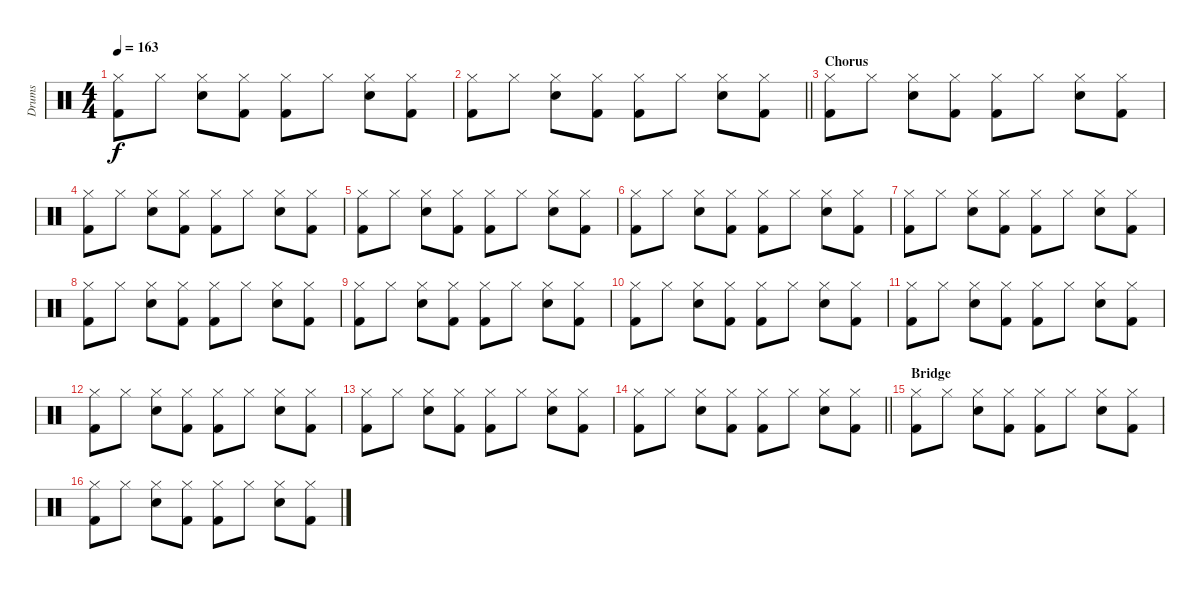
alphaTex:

\track ("Drums" "Drums") {instrument percussion}
\staff {score}
\articulation defaults
\ts (4 4)
\tempo 163
\clef neutral
\ks c
("Hi-Hat (closed)" "Kick (hit) 2").8{dy f} "Hi-Hat (closed)".8 ("Hi-Hat (closed)" "Snare (hit) 2").8 ("Hi-Hat (closed)" "Kick (hit) 2").8 ("Hi-Hat (closed)" "Kick (hit) 2").8 "Hi-Hat (closed)".8 ("Hi-Hat (closed)" "Snare (hit) 2").8 ("Hi-Hat (closed)" "Kick (hit) 2").8 |
\barLineRight lightlight
("Hi-Hat (closed)" "Kick (hit) 2").8 "Hi-Hat (closed)".8 ("Hi-Hat (closed)" "Snare (hit) 2").8 ("Hi-Hat (closed)" "Kick (hit) 2").8 ("Hi-Hat (closed)" "Kick (hit) 2").8 "Hi-Hat (closed)".8 ("Hi-Hat (closed)" "Snare (hit) 2").8 ("Hi-Hat (closed)" "Kick (hit) 2").8 |
\section ("" "Chorus")
("Hi-Hat (closed)" "Kick (hit) 2").8 "Hi-Hat (closed)".8 ("Hi-Hat (closed)" "Snare (hit) 2").8 ("Hi-Hat (closed)" "Kick (hit) 2").8 ("Hi-Hat (closed)" "Kick (hit) 2").8 "Hi-Hat (closed)".8 ("Hi-Hat (closed)" "Snare (hit) 2").8 ("Hi-Hat (closed)" "Kick (hit) 2").8 |
("Hi-Hat (closed)" "Kick (hit) 2").8 "Hi-Hat (closed)".8 ("Hi-Hat (closed)" "Snare (hit) 2").8 ("Hi-Hat (closed)" "Kick (hit) 2").8 ("Hi-Hat (closed)" "Kick (hit) 2").8 "Hi-Hat (closed)".8 ("Hi-Hat (closed)" "Snare (hit) 2").8 ("Hi-Hat (closed)" "Kick (hit) 2").8 |
("Hi-Hat (closed)" "Kick (hit) 2").8 "Hi-Hat (closed)".8 ("Hi-Hat (closed)" "Snare (hit) 2").8 ("Hi-Hat (closed)" "Kick (hit) 2").8 ("Hi-Hat (closed)" "Kick (hit) 2").8 "Hi-Hat (closed)".8 ("Hi-Hat (closed)" "Snare (hit) 2").8 ("Hi-Hat (closed)" "Kick (hit) 2").8 |
("Hi-Hat (closed)" "Kick (hit) 2").8 "Hi-Hat (closed)".8 ("Hi-Hat (closed)" "Snare (hit) 2").8 ("Hi-Hat (closed)" "Kick (hit) 2").8 ("Hi-Hat (closed)" "Kick (hit) 2").8 "Hi-Hat (closed)".8 ("Hi-Hat (closed)" "Snare (hit) 2").8 ("Hi-Hat (closed)" "Kick (hit) 2").8 |
("Hi-Hat (closed)" "Kick (hit) 2").8 "Hi-Hat (closed)".8 ("Hi-Hat (closed)" "Snare (hit) 2").8 ("Hi-Hat (closed)" "Kick (hit) 2").8 ("Hi-Hat (closed)" "Kick (hit) 2").8 "Hi-Hat (closed)".8 ("Hi-Hat (closed)" "Snare (hit) 2").8 ("Hi-Hat (closed)" "Kick (hit) 2").8 |
("Hi-Hat (closed)" "Kick (hit) 2").8 "Hi-Hat (closed)".8 ("Hi-Hat (closed)" "Snare (hit) 2").8 ("Hi-Hat (closed)" "Kick (hit) 2").8 ("Hi-Hat (closed)" "Kick (hit) 2").8 "Hi-Hat (closed)".8 ("Hi-Hat (closed)" "Snare (hit) 2").8 ("Hi-Hat (closed)" "Kick (hit) 2").8 |
("Hi-Hat (closed)" "Kick (hit) 2").8 "Hi-Hat (closed)".8 ("Hi-Hat (closed)" "Snare (hit) 2").8 ("Hi-Hat (closed)" "Kick (hit) 2").8 ("Hi-Hat (closed)" "Kick (hit) 2").8 "Hi-Hat (closed)".8 ("Hi-Hat (closed)" "Snare (hit) 2").8 ("Hi-Hat (closed)" "Kick (hit) 2").8 |
("Hi-Hat (closed)" "Kick (hit) 2").8 "Hi-Hat (closed)".8 ("Hi-Hat (closed)" "Snare (hit) 2").8 ("Hi-Hat (closed)" "Kick (hit) 2").8 ("Hi-Hat (closed)" "Kick (hit) 2").8 "Hi-Hat (closed)".8 ("Hi-Hat (closed)" "Snare (hit) 2").8 ("Hi-Hat (closed)" "Kick (hit) 2").8 |
("Hi-Hat (closed)" "Kick (hit) 2").8 "Hi-Hat (closed)".8 ("Hi-Hat (closed)" "Snare (hit) 2").8 ("Hi-Hat (closed)" "Kick (hit) 2").8 ("Hi-Hat (closed)" "Kick (hit) 2").8 "Hi-Hat (closed)".8 ("Hi-Hat (closed)" "Snare (hit) 2").8 ("Hi-Hat (closed)" "Kick (hit) 2").8 |
("Hi-Hat (closed)" "Kick (hit) 2").8 "Hi-Hat (closed)".8 ("Hi-Hat (closed)" "Snare (hit) 2").8 ("Hi-Hat (closed)" "Kick (hit) 2").8 ("Hi-Hat (closed)" "Kick (hit) 2").8 "Hi-Hat (closed)".8 ("Hi-Hat (closed)" "Snare (hit) 2").8 ("Hi-Hat (closed)" "Kick (hit) 2").8 |
("Hi-Hat (closed)" "Kick (hit) 2").8 "Hi-Hat (closed)".8 ("Hi-Hat (closed)" "Snare (hit) 2").8 ("Hi-Hat (closed)" "Kick (hit) 2").8 ("Hi-Hat (closed)" "Kick (hit) 2").8 "Hi-Hat (closed)".8 ("Hi-Hat (closed)" "Snare (hit) 2").8 ("Hi-Hat (closed)" "Kick (hit) 2").8 |
\barLineRight lightlight
("Hi-Hat (closed)" "Kick (hit) 2").8 "Hi-Hat (closed)".8 ("Hi-Hat (closed)" "Snare (hit) 2").8 ("Hi-Hat (closed)" "Kick (hit) 2").8 ("Hi-Hat (closed)" "Kick (hit) 2").8 "Hi-Hat (closed)".8 ("Hi-Hat (closed)" "Snare (hit) 2").8 ("Hi-Hat (closed)" "Kick (hit) 2").8 |
\section ("" "Bridge")
("Hi-Hat (closed)" "Kick (hit) 2").8 "Hi-Hat (closed)".8 ("Hi-Hat (closed)" "Snare (hit) 2").8 ("Hi-Hat (closed)" "Kick (hit) 2").8 ("Hi-Hat (closed)" "Kick (hit) 2").8 "Hi-Hat (closed)".8 ("Hi-Hat (closed)" "Snare (hit) 2").8 ("Hi-Hat (closed)" "Kick (hit) 2").8 |
("Hi-Hat (closed)" "Kick (hit) 2").8 "Hi-Hat (closed)".8 ("Hi-Hat (closed)" "Snare (hit) 2").8 ("Hi-Hat (closed)" "Kick (hit) 2").8 ("Hi-Hat (closed)" "Kick (hit) 2").8 "Hi-Hat (closed)".8 ("Hi-Hat (closed)" "Snare (hit) 2").8 ("Hi-Hat (closed)" "Kick (hit) 2").8
